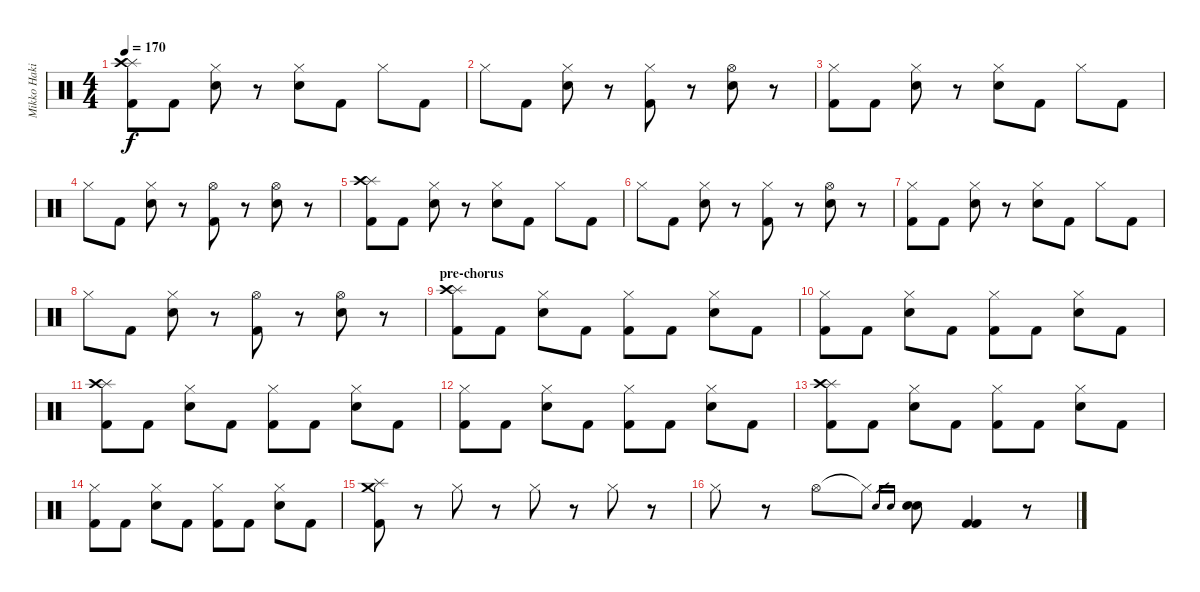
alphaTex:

\track ("Mikko Hakila - drums" "Mikko Haki") {instrument percussion}
\staff {score}
\articulation defaults
\ts (4 4)
\tempo 170
\clef neutral
\ks c
("Splash (hit)" "Crash high (hit)" "Kick (hit) 2").8{dy f} "Kick (hit) 2".8 ("Hi-Hat (closed)" "Snare (hit) 2").8 r.8 ("Hi-Hat (closed)" "Snare (hit) 2").8 "Kick (hit) 2".8 "Hi-Hat (closed)".8 "Kick (hit) 2".8 |
"Hi-Hat (closed)".8 "Kick (hit) 2".8 ("Hi-Hat (closed)" "Snare (hit) 2").8 r.8 ("Hi-Hat (closed)" "Kick (hit) 2").8 r.8 ("Hi-Hat (open)" "Snare (hit) 2").8 r.8 |
("Hi-Hat (closed)" "Kick (hit) 2").8 "Kick (hit) 2".8 ("Hi-Hat (closed)" "Snare (hit) 2").8 r.8 ("Hi-Hat (closed)" "Snare (hit) 2").8 "Kick (hit) 2".8 "Hi-Hat (closed)".8 "Kick (hit) 2".8 |
"Hi-Hat (closed)".8 "Kick (hit) 2".8 ("Hi-Hat (closed)" "Snare (hit) 2").8 r.8 ("Hi-Hat (open)" "Kick (hit) 2").8 r.8 ("Hi-Hat (open)" "Snare (hit) 2").8 r.8 |
("Splash (hit)" "Crash high (hit)" "Kick (hit) 2").8 "Kick (hit) 2".8 ("Hi-Hat (closed)" "Snare (hit) 2").8 r.8 ("Hi-Hat (closed)" "Snare (hit) 2").8 "Kick (hit) 2".8 "Hi-Hat (closed)".8 "Kick (hit) 2".8 |
"Hi-Hat (closed)".8 "Kick (hit) 2".8 ("Hi-Hat (closed)" "Snare (hit) 2").8 r.8 ("Hi-Hat (closed)" "Kick (hit) 2").8 r.8 ("Hi-Hat (open)" "Snare (hit) 2").8 r.8 |
("Hi-Hat (closed)" "Kick (hit) 2").8 "Kick (hit) 2".8 ("Hi-Hat (closed)" "Snare (hit) 2").8 r.8 ("Hi-Hat (closed)" "Snare (hit) 2").8 "Kick (hit) 2".8 "Hi-Hat (closed)".8 "Kick (hit) 2".8 |
"Hi-Hat (closed)".8 "Kick (hit) 2".8 ("Hi-Hat (closed)" "Snare (hit) 2").8 r.8 ("Hi-Hat (open)" "Kick (hit) 2").8 r.8 ("Hi-Hat (open)" "Snare (hit) 2").8 r.8 |
\section ("" "pre-chorus")
("Splash (hit)" "Crash high (hit)" "Kick (hit) 2").8 "Kick (hit) 2".8 ("Hi-Hat (closed)" "Snare (hit) 2").8 "Kick (hit) 2".8 ("Hi-Hat (closed)" "Kick (hit) 2").8 "Kick (hit) 2".8 ("Hi-Hat (closed)" "Snare (hit) 2").8 "Kick (hit) 2".8 |
("Hi-Hat (closed)" "Kick (hit) 2").8 "Kick (hit) 2".8 ("Hi-Hat (closed)" "Snare (hit) 2").8 "Kick (hit) 2".8 ("Hi-Hat (closed)" "Kick (hit) 2").8 "Kick (hit) 2".8 ("Hi-Hat (closed)" "Snare (hit) 2").8 "Kick (hit) 2".8 |
("Splash (hit)" "Crash high (hit)" "Kick (hit) 2").8 "Kick (hit) 2".8 ("Hi-Hat (closed)" "Snare (hit) 2").8 "Kick (hit) 2".8 ("Hi-Hat (closed)" "Kick (hit) 2").8 "Kick (hit) 2".8 ("Hi-Hat (closed)" "Snare (hit) 2").8 "Kick (hit) 2".8 |
("Hi-Hat (closed)" "Kick (hit) 2").8 "Kick (hit) 2".8 ("Hi-Hat (closed)" "Snare (hit) 2").8 "Kick (hit) 2".8 ("Hi-Hat (closed)" "Kick (hit) 2").8 "Kick (hit) 2".8 ("Hi-Hat (closed)" "Snare (hit) 2").8 "Kick (hit) 2".8 |
("Splash (hit)" "Crash high (hit)" "Kick (hit) 2").8 "Kick (hit) 2".8 ("Hi-Hat (closed)" "Snare (hit) 2").8 "Kick (hit) 2".8 ("Hi-Hat (closed)" "Kick (hit) 2").8 "Kick (hit) 2".8 ("Hi-Hat (closed)" "Snare (hit) 2").8 "Kick (hit) 2".8 |
("Hi-Hat (closed)" "Kick (hit) 2").8 "Kick (hit) 2".8 ("Hi-Hat (closed)" "Snare (hit) 2").8 "Kick (hit) 2".8 ("Hi-Hat (closed)" "Kick (hit) 2").8 "Kick (hit) 2".8 ("Hi-Hat (closed)" "Snare (hit) 2").8 "Kick (hit) 2".8 |
("Splash (hit)" "Crash medium (hit)" "Kick (hit) 2").8 r.8 "Hi-Hat (closed)".8 r.8 "Hi-Hat (closed)".8 r.8 "Hi-Hat (closed)".8 r.8 |
"Hi-Hat (closed)".8 r.8 "Hi-Hat (open)".8 "Hi-Hat (closed)"{t}.8 "Snare (hit) 2".16{gr} "Snare (hit) 2".16{gr} ("Snare (hit) 2" "Snare (hit) 2").8 ("Kick (hit) 2" "Kick (hit) 2").4 r.8
